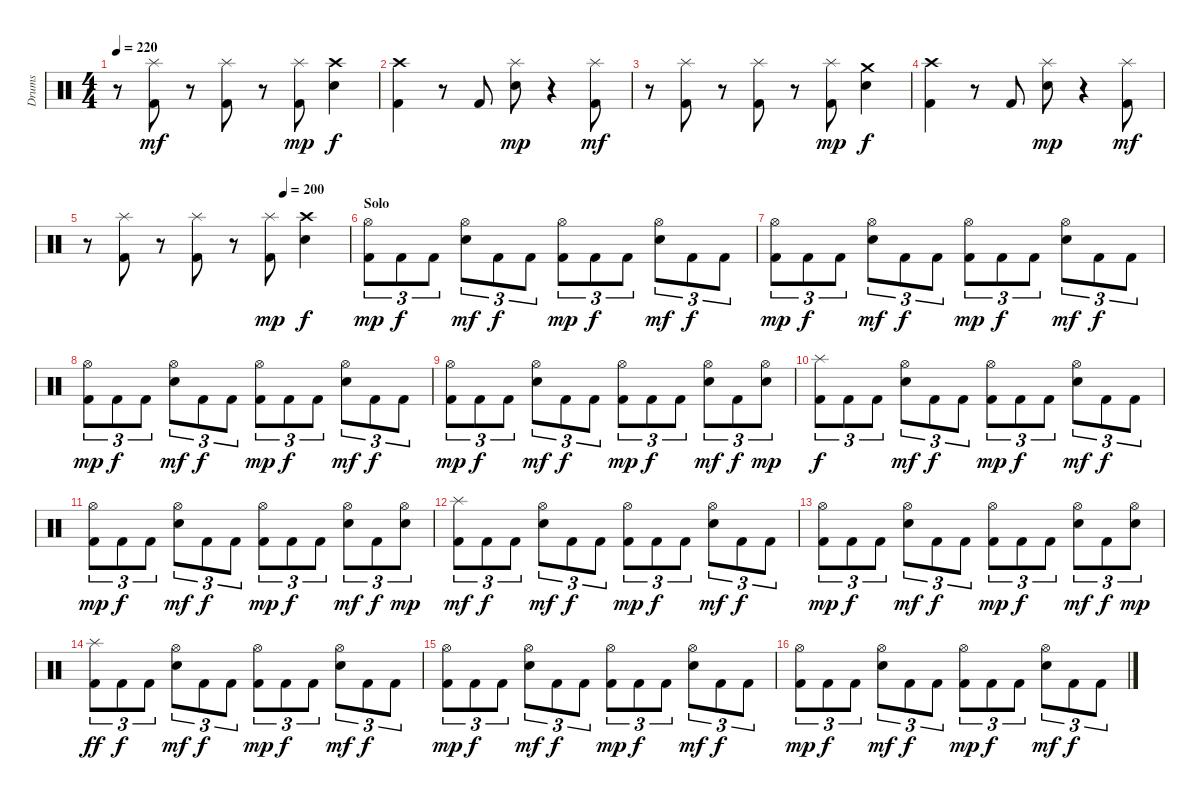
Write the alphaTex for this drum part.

\track ("Drums" "Drums") {instrument percussion}
\staff {score}
\articulation defaults
\ts (4 4)
\tempo 220
\clef neutral
\ks c
r.8{dy mf} ("Splash (hit)" "Kick (hit) 2").8 r.8 ("Splash (hit)" "Kick (hit) 2").8 r.8 ("Splash (hit)" "Kick (hit) 2").8{dy mp} ("Crash high (hit)" "Snare (hit) 2").4{dy f} |
("Crash high (hit)" "Kick (hit) 2").4 r.8 "Kick (hit) 2".8 ("Splash (hit)" "Snare (hit) 2").8{dy mp} r.4 ("Splash (hit)" "Kick (hit) 2").8{dy mf} |
r.8 ("Splash (hit)" "Kick (hit) 2").8 r.8 ("Splash (hit)" "Kick (hit) 2").8 r.8 ("Splash (hit)" "Kick (hit) 2").8{dy mp} ("Crash medium (hit)" "Snare (hit) 2").4{dy f} |
("Crash high (hit)" "Kick (hit) 2").4 r.8 "Kick (hit) 2".8 ("Splash (hit)" "Snare (hit) 2").8{dy mp} r.4 ("Splash (hit)" "Kick (hit) 2").8{dy mf} |
\tempo (200 0.75)
r.8 ("Splash (hit)" "Kick (hit) 2").8 r.8 ("Splash (hit)" "Kick (hit) 2").8 r.8 ("Splash (hit)" "Kick (hit) 2").8{dy mp} ("Crash high (hit)" "Snare (hit) 2").4{dy f} |
\section ("" "Solo")
("Hi-Hat (open)" "Kick (hit) 2").8{tu (3 2) dy mp} "Kick (hit) 2".8{tu (3 2) dy f} "Kick (hit) 2".8{tu (3 2)} ("Hi-Hat (open)" "Snare (hit) 2").8{tu (3 2) dy mf} "Kick (hit) 2".8{tu (3 2) dy f} "Kick (hit) 2".8{tu (3 2)} ("Hi-Hat (open)" "Kick (hit) 2").8{tu (3 2) dy mp} "Kick (hit) 2".8{tu (3 2) dy f} "Kick (hit) 2".8{tu (3 2)} ("Hi-Hat (open)" "Snare (hit) 2").8{tu (3 2) dy mf} "Kick (hit) 2".8{tu (3 2) dy f} "Kick (hit) 2".8{tu (3 2)} |
("Hi-Hat (open)" "Kick (hit) 2").8{tu (3 2) dy mp} "Kick (hit) 2".8{tu (3 2) dy f} "Kick (hit) 2".8{tu (3 2)} ("Hi-Hat (open)" "Snare (hit) 2").8{tu (3 2) dy mf} "Kick (hit) 2".8{tu (3 2) dy f} "Kick (hit) 2".8{tu (3 2)} ("Hi-Hat (open)" "Kick (hit) 2").8{tu (3 2) dy mp} "Kick (hit) 2".8{tu (3 2) dy f} "Kick (hit) 2".8{tu (3 2)} ("Hi-Hat (open)" "Snare (hit) 2").8{tu (3 2) dy mf} "Kick (hit) 2".8{tu (3 2) dy f} "Kick (hit) 2".8{tu (3 2)} |
("Hi-Hat (open)" "Kick (hit) 2").8{tu (3 2) dy mp} "Kick (hit) 2".8{tu (3 2) dy f} "Kick (hit) 2".8{tu (3 2)} ("Hi-Hat (open)" "Snare (hit) 2").8{tu (3 2) dy mf} "Kick (hit) 2".8{tu (3 2) dy f} "Kick (hit) 2".8{tu (3 2)} ("Hi-Hat (open)" "Kick (hit) 2").8{tu (3 2) dy mp} "Kick (hit) 2".8{tu (3 2) dy f} "Kick (hit) 2".8{tu (3 2)} ("Hi-Hat (open)" "Snare (hit) 2").8{tu (3 2) dy mf} "Kick (hit) 2".8{tu (3 2) dy f} "Kick (hit) 2".8{tu (3 2)} |
("Hi-Hat (open)" "Kick (hit) 2").8{tu (3 2) dy mp} "Kick (hit) 2".8{tu (3 2) dy f} "Kick (hit) 2".8{tu (3 2)} ("Hi-Hat (open)" "Snare (hit) 2").8{tu (3 2) dy mf} "Kick (hit) 2".8{tu (3 2) dy f} "Kick (hit) 2".8{tu (3 2)} ("Hi-Hat (open)" "Kick (hit) 2").8{tu (3 2) dy mp} "Kick (hit) 2".8{tu (3 2) dy f} "Kick (hit) 2".8{tu (3 2)} ("Hi-Hat (open)" "Snare (hit) 2").8{tu (3 2) dy mf} "Kick (hit) 2".8{tu (3 2) dy f} ("Hi-Hat (open)" "Snare (hit) 2").8{tu (3 2) dy mp} |
("Splash (hit)" "Kick (hit) 2").8{tu (3 2) dy f} "Kick (hit) 2".8{tu (3 2)} "Kick (hit) 2".8{tu (3 2)} ("Hi-Hat (open)" "Snare (hit) 2").8{tu (3 2) dy mf} "Kick (hit) 2".8{tu (3 2) dy f} "Kick (hit) 2".8{tu (3 2)} ("Hi-Hat (open)" "Kick (hit) 2").8{tu (3 2) dy mp} "Kick (hit) 2".8{tu (3 2) dy f} "Kick (hit) 2".8{tu (3 2)} ("Hi-Hat (open)" "Snare (hit) 2").8{tu (3 2) dy mf} "Kick (hit) 2".8{tu (3 2) dy f} "Kick (hit) 2".8{tu (3 2)} |
("Hi-Hat (open)" "Kick (hit) 2").8{tu (3 2) dy mp} "Kick (hit) 2".8{tu (3 2) dy f} "Kick (hit) 2".8{tu (3 2)} ("Hi-Hat (open)" "Snare (hit) 2").8{tu (3 2) dy mf} "Kick (hit) 2".8{tu (3 2) dy f} "Kick (hit) 2".8{tu (3 2)} ("Hi-Hat (open)" "Kick (hit) 2").8{tu (3 2) dy mp} "Kick (hit) 2".8{tu (3 2) dy f} "Kick (hit) 2".8{tu (3 2)} ("Hi-Hat (open)" "Snare (hit) 2").8{tu (3 2) dy mf} "Kick (hit) 2".8{tu (3 2) dy f} ("Hi-Hat (open)" "Snare (hit) 2").8{tu (3 2) dy mp} |
("Splash (hit)" "Kick (hit) 2").8{tu (3 2) dy mf} "Kick (hit) 2".8{tu (3 2) dy f} "Kick (hit) 2".8{tu (3 2)} ("Hi-Hat (open)" "Snare (hit) 2").8{tu (3 2) dy mf} "Kick (hit) 2".8{tu (3 2) dy f} "Kick (hit) 2".8{tu (3 2)} ("Hi-Hat (open)" "Kick (hit) 2").8{tu (3 2) dy mp} "Kick (hit) 2".8{tu (3 2) dy f} "Kick (hit) 2".8{tu (3 2)} ("Hi-Hat (open)" "Snare (hit) 2").8{tu (3 2) dy mf} "Kick (hit) 2".8{tu (3 2) dy f} "Kick (hit) 2".8{tu (3 2)} |
("Hi-Hat (open)" "Kick (hit) 2").8{tu (3 2) dy mp} "Kick (hit) 2".8{tu (3 2) dy f} "Kick (hit) 2".8{tu (3 2)} ("Hi-Hat (open)" "Snare (hit) 2").8{tu (3 2) dy mf} "Kick (hit) 2".8{tu (3 2) dy f} "Kick (hit) 2".8{tu (3 2)} ("Hi-Hat (open)" "Kick (hit) 2").8{tu (3 2) dy mp} "Kick (hit) 2".8{tu (3 2) dy f} "Kick (hit) 2".8{tu (3 2)} ("Hi-Hat (open)" "Snare (hit) 2").8{tu (3 2) dy mf} "Kick (hit) 2".8{tu (3 2) dy f} ("Hi-Hat (open)" "Snare (hit) 2").8{tu (3 2) dy mp} |
("Splash (hit)" "Kick (hit) 2").8{tu (3 2) dy ff} "Kick (hit) 2".8{tu (3 2) dy f} "Kick (hit) 2".8{tu (3 2)} ("Hi-Hat (open)" "Snare (hit) 2").8{tu (3 2) dy mf} "Kick (hit) 2".8{tu (3 2) dy f} "Kick (hit) 2".8{tu (3 2)} ("Hi-Hat (open)" "Kick (hit) 2").8{tu (3 2) dy mp} "Kick (hit) 2".8{tu (3 2) dy f} "Kick (hit) 2".8{tu (3 2)} ("Hi-Hat (open)" "Snare (hit) 2").8{tu (3 2) dy mf} "Kick (hit) 2".8{tu (3 2) dy f} "Kick (hit) 2".8{tu (3 2)} |
("Hi-Hat (open)" "Kick (hit) 2").8{tu (3 2) dy mp} "Kick (hit) 2".8{tu (3 2) dy f} "Kick (hit) 2".8{tu (3 2)} ("Hi-Hat (open)" "Snare (hit) 2").8{tu (3 2) dy mf} "Kick (hit) 2".8{tu (3 2) dy f} "Kick (hit) 2".8{tu (3 2)} ("Hi-Hat (open)" "Kick (hit) 2").8{tu (3 2) dy mp} "Kick (hit) 2".8{tu (3 2) dy f} "Kick (hit) 2".8{tu (3 2)} ("Hi-Hat (open)" "Snare (hit) 2").8{tu (3 2) dy mf} "Kick (hit) 2".8{tu (3 2) dy f} "Kick (hit) 2".8{tu (3 2)} |
("Hi-Hat (open)" "Kick (hit) 2").8{tu (3 2) dy mp} "Kick (hit) 2".8{tu (3 2) dy f} "Kick (hit) 2".8{tu (3 2)} ("Hi-Hat (open)" "Snare (hit) 2").8{tu (3 2) dy mf} "Kick (hit) 2".8{tu (3 2) dy f} "Kick (hit) 2".8{tu (3 2)} ("Hi-Hat (open)" "Kick (hit) 2").8{tu (3 2) dy mp} "Kick (hit) 2".8{tu (3 2) dy f} "Kick (hit) 2".8{tu (3 2)} ("Hi-Hat (open)" "Snare (hit) 2").8{tu (3 2) dy mf} "Kick (hit) 2".8{tu (3 2) dy f} "Kick (hit) 2".8{tu (3 2)}
